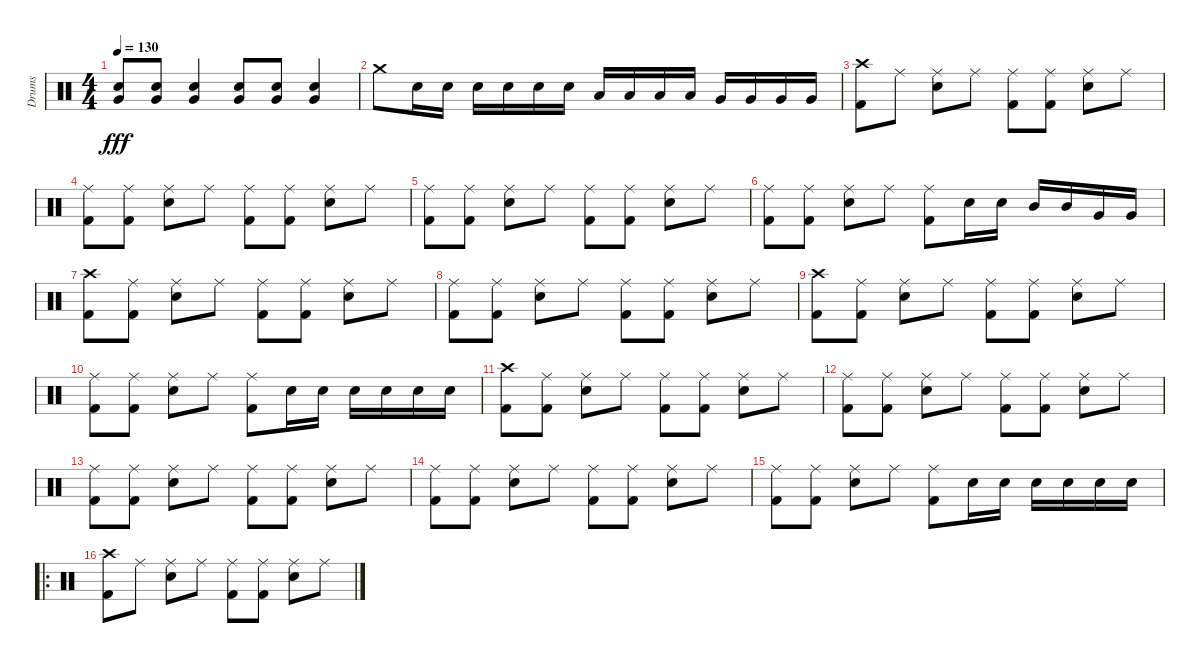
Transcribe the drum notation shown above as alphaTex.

\track ("Drums" "Drums") {instrument percussion}
\staff {score}
\articulation defaults
\ts (4 4)
\tempo 130
\clef neutral
\ks c
("Snare (hit) 2" "Very Low Tom (hit)").8{dy fff} ("Snare (hit) 2" "Very Low Tom (hit)").8 ("Snare (hit) 2" "Very Low Tom (hit)").4 ("Snare (hit) 2" "Very Low Tom (hit)").8 ("Snare (hit) 2" "Very Low Tom (hit)").8 ("Snare (hit) 2" "Very Low Tom (hit)").4 |
"Crash medium (hit)".8 "Snare (hit) 2".16 "Snare (hit) 2".16 "Snare (hit) 2".16 "Snare (hit) 2".16 "Snare (hit) 2".16 "Snare (hit) 2".16 "Low Tom (hit)".16 "Low Tom (hit)".16 "Low Tom (hit)".16 "Low Tom (hit)".16 "Very Low Tom (hit)".16 "Very Low Tom (hit)".16 "Very Low Tom (hit)".16 "Very Low Tom (hit)".16 |
("Crash high (hit)" "Kick (hit) 2").8 "Ride (middle)".8 ("Ride (middle)" "Snare (hit) 2").8 "Ride (middle)".8 ("Ride (middle)" "Kick (hit) 2").8 ("Ride (middle)" "Kick (hit) 2").8 ("Ride (middle)" "Snare (hit) 2").8 "Ride (middle)".8 |
("Ride (middle)" "Kick (hit) 2").8 ("Ride (middle)" "Kick (hit) 2").8 ("Ride (middle)" "Snare (hit) 2").8 "Ride (middle)".8 ("Ride (middle)" "Kick (hit) 2").8 ("Ride (middle)" "Kick (hit) 2").8 ("Ride (middle)" "Snare (hit) 2").8 "Ride (middle)".8 |
("Ride (middle)" "Kick (hit) 2").8 ("Ride (middle)" "Kick (hit) 2").8 ("Ride (middle)" "Snare (hit) 2").8 "Ride (middle)".8 ("Ride (middle)" "Kick (hit) 2").8 ("Ride (middle)" "Kick (hit) 2").8 ("Ride (middle)" "Snare (hit) 2").8 "Ride (middle)".8 |
("Ride (middle)" "Kick (hit) 2").8 ("Ride (middle)" "Kick (hit) 2").8 ("Ride (middle)" "Snare (hit) 2").8 "Ride (middle)".8 ("Ride (middle)" "Kick (hit) 2").8 "Snare (hit) 2".16 "Snare (hit) 2".16 "Mid Tom (hit)".16 "Mid Tom (hit)".16 "Very Low Tom (hit)".16 "Very Low Tom (hit)".16 |
("Crash high (hit)" "Kick (hit) 2").8 ("Ride (middle)" "Kick (hit) 2").8 ("Ride (middle)" "Snare (hit) 2").8 "Ride (middle)".8 ("Ride (middle)" "Kick (hit) 2").8 ("Ride (middle)" "Kick (hit) 2").8 ("Ride (middle)" "Snare (hit) 2").8 "Ride (middle)".8 |
("Ride (middle)" "Kick (hit) 2").8 ("Ride (middle)" "Kick (hit) 2").8 ("Ride (middle)" "Snare (hit) 2").8 "Ride (middle)".8 ("Ride (middle)" "Kick (hit) 2").8 ("Ride (middle)" "Kick (hit) 2").8 ("Ride (middle)" "Snare (hit) 2").8 "Ride (middle)".8 |
("Crash high (hit)" "Kick (hit) 2").8 ("Ride (middle)" "Kick (hit) 2").8 ("Ride (middle)" "Snare (hit) 2").8 "Ride (middle)".8 ("Ride (middle)" "Kick (hit) 2").8 ("Ride (middle)" "Kick (hit) 2").8 ("Ride (middle)" "Snare (hit) 2").8 "Ride (middle)".8 |
("Ride (middle)" "Kick (hit) 2").8 ("Ride (middle)" "Kick (hit) 2").8 ("Ride (middle)" "Snare (hit) 2").8 "Ride (middle)".8 ("Ride (middle)" "Kick (hit) 2").8 "Snare (hit) 2".16 "Snare (hit) 2".16 "Snare (hit) 2".16 "Snare (hit) 2".16 "Snare (hit) 2".16 "Snare (hit) 2".16 |
("Crash high (hit)" "Kick (hit) 2").8 ("Ride (middle)" "Kick (hit) 2").8 ("Ride (middle)" "Snare (hit) 2").8 "Ride (middle)".8 ("Ride (middle)" "Kick (hit) 2").8 ("Ride (middle)" "Kick (hit) 2").8 ("Ride (middle)" "Snare (hit) 2").8 "Ride (middle)".8 |
("Ride (middle)" "Kick (hit) 2").8 ("Ride (middle)" "Kick (hit) 2").8 ("Ride (middle)" "Snare (hit) 2").8 "Ride (middle)".8 ("Ride (middle)" "Kick (hit) 2").8 ("Ride (middle)" "Kick (hit) 2").8 ("Ride (middle)" "Snare (hit) 2").8 "Ride (middle)".8 |
("Ride (middle)" "Kick (hit) 2").8 ("Ride (middle)" "Kick (hit) 2").8 ("Ride (middle)" "Snare (hit) 2").8 "Ride (middle)".8 ("Ride (middle)" "Kick (hit) 2").8 ("Ride (middle)" "Kick (hit) 2").8 ("Ride (middle)" "Snare (hit) 2").8 "Ride (middle)".8 |
("Ride (middle)" "Kick (hit) 2").8 ("Ride (middle)" "Kick (hit) 2").8 ("Ride (middle)" "Snare (hit) 2").8 "Ride (middle)".8 ("Ride (middle)" "Kick (hit) 2").8 ("Ride (middle)" "Kick (hit) 2").8 ("Ride (middle)" "Snare (hit) 2").8 "Ride (middle)".8 |
("Ride (middle)" "Kick (hit) 2").8 ("Ride (middle)" "Kick (hit) 2").8 ("Ride (middle)" "Snare (hit) 2").8 "Ride (middle)".8 ("Ride (middle)" "Kick (hit) 2").8 "Snare (hit) 2".16 "Snare (hit) 2".16 "Snare (hit) 2".16 "Snare (hit) 2".16 "Snare (hit) 2".16 "Snare (hit) 2".16 |
\ro
("Crash high (hit)" "Kick (hit) 2").8 "Ride (middle)".8 ("Ride (middle)" "Snare (hit) 2").8 "Ride (middle)".8 ("Ride (middle)" "Kick (hit) 2").8 ("Ride (middle)" "Kick (hit) 2").8 ("Ride (middle)" "Snare (hit) 2").8 "Ride (middle)".8
